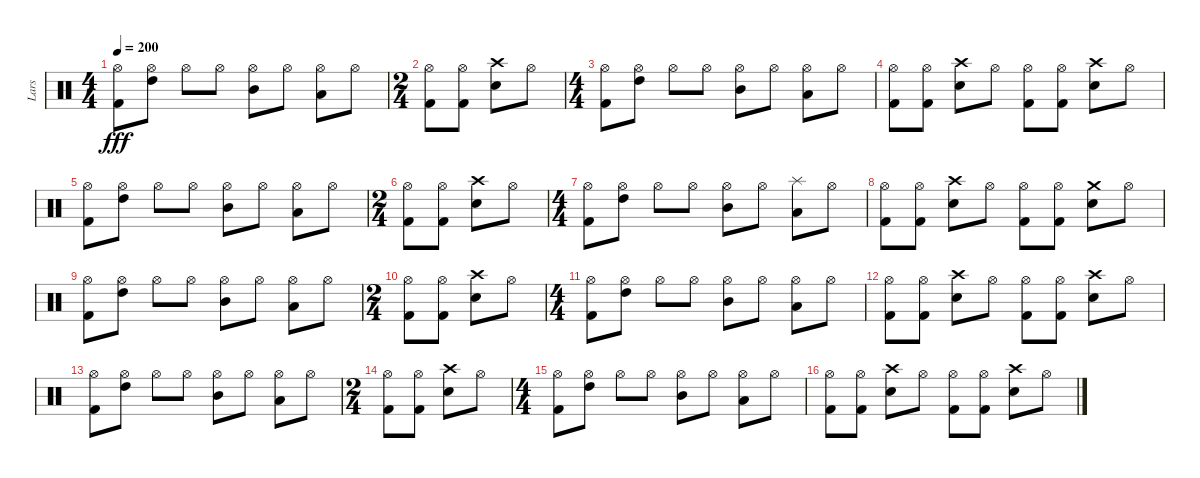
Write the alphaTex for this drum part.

\track ("Lars" "Lars") {instrument percussion}
\staff {score}
\articulation defaults
\ts (4 4)
\tempo 200
\clef neutral
\ks c
("Hi-Hat (open)" "Kick (hit) 2").8{dy fff} ("Hi-Hat (open)" "High Tom (hit)").8 "Hi-Hat (open)".8 "Hi-Hat (open)".8 ("Hi-Hat (open)" "Mid Tom (hit)").8 "Hi-Hat (open)".8 ("Hi-Hat (open)" "Low Tom (hit)").8 "Hi-Hat (open)".8 |
\ts (2 4)
("Hi-Hat (open)" "Kick (hit) 2").8 ("Hi-Hat (open)" "Kick (hit) 2").8 ("Crash high (hit)" "Snare (hit) 2").8 "Hi-Hat (open)".8 |
\ts (4 4)
("Hi-Hat (open)" "Kick (hit) 2").8 ("Hi-Hat (open)" "High Tom (hit)").8 "Hi-Hat (open)".8 "Hi-Hat (open)".8 ("Hi-Hat (open)" "Mid Tom (hit)").8 "Hi-Hat (open)".8 ("Hi-Hat (open)" "Low Tom (hit)").8 "Hi-Hat (open)".8 |
("Hi-Hat (open)" "Kick (hit) 2").8 ("Hi-Hat (open)" "Kick (hit) 2").8 ("Crash high (hit)" "Snare (hit) 2").8 "Hi-Hat (open)".8 ("Hi-Hat (open)" "Kick (hit) 2").8 ("Hi-Hat (open)" "Kick (hit) 2").8 ("Crash high (hit)" "Snare (hit) 2").8 "Hi-Hat (open)".8 |
("Hi-Hat (open)" "Kick (hit) 2").8 ("Hi-Hat (open)" "High Tom (hit)").8 "Hi-Hat (open)".8 "Hi-Hat (open)".8 ("Hi-Hat (open)" "Mid Tom (hit)").8 "Hi-Hat (open)".8 ("Hi-Hat (open)" "Low Tom (hit)").8 "Hi-Hat (open)".8 |
\ts (2 4)
("Hi-Hat (open)" "Kick (hit) 2").8 ("Hi-Hat (open)" "Kick (hit) 2").8 ("Crash high (hit)" "Snare (hit) 2").8 "Hi-Hat (open)".8 |
\ts (4 4)
("Hi-Hat (open)" "Kick (hit) 2").8 ("Hi-Hat (open)" "High Tom (hit)").8 "Hi-Hat (open)".8 "Hi-Hat (open)".8 ("Hi-Hat (open)" "Mid Tom (hit)").8 "Hi-Hat (open)".8 ("Splash (hit)" "Low Tom (hit)").8 "Hi-Hat (open)".8 |
("Hi-Hat (open)" "Kick (hit) 2").8 ("Hi-Hat (open)" "Kick (hit) 2").8 ("Crash high (hit)" "Snare (hit) 2").8 "Hi-Hat (open)".8 ("Hi-Hat (open)" "Kick (hit) 2").8 ("Hi-Hat (open)" "Kick (hit) 2").8 ("Crash medium (hit)" "Snare (hit) 2").8 "Hi-Hat (open)".8 |
("Hi-Hat (open)" "Kick (hit) 2").8 ("Hi-Hat (open)" "High Tom (hit)").8 "Hi-Hat (open)".8 "Hi-Hat (open)".8 ("Hi-Hat (open)" "Mid Tom (hit)").8 "Hi-Hat (open)".8 ("Hi-Hat (open)" "Low Tom (hit)").8 "Hi-Hat (open)".8 |
\ts (2 4)
("Hi-Hat (open)" "Kick (hit) 2").8 ("Hi-Hat (open)" "Kick (hit) 2").8 ("Crash high (hit)" "Snare (hit) 2").8 "Hi-Hat (open)".8 |
\ts (4 4)
("Hi-Hat (open)" "Kick (hit) 2").8 ("Hi-Hat (open)" "High Tom (hit)").8 "Hi-Hat (open)".8 "Hi-Hat (open)".8 ("Hi-Hat (open)" "Mid Tom (hit)").8 "Hi-Hat (open)".8 ("Hi-Hat (open)" "Low Tom (hit)").8 "Hi-Hat (open)".8 |
("Hi-Hat (open)" "Kick (hit) 2").8 ("Hi-Hat (open)" "Kick (hit) 2").8 ("Crash high (hit)" "Snare (hit) 2").8 "Hi-Hat (open)".8 ("Hi-Hat (open)" "Kick (hit) 2").8 ("Hi-Hat (open)" "Kick (hit) 2").8 ("Crash high (hit)" "Snare (hit) 2").8 "Hi-Hat (open)".8 |
("Hi-Hat (open)" "Kick (hit) 2").8 ("Hi-Hat (open)" "High Tom (hit)").8 "Hi-Hat (open)".8 "Hi-Hat (open)".8 ("Hi-Hat (open)" "Mid Tom (hit)").8 "Hi-Hat (open)".8 ("Hi-Hat (open)" "Low Tom (hit)").8 "Hi-Hat (open)".8 |
\ts (2 4)
("Hi-Hat (open)" "Kick (hit) 2").8 ("Hi-Hat (open)" "Kick (hit) 2").8 ("Crash high (hit)" "Snare (hit) 2").8 "Hi-Hat (open)".8 |
\ts (4 4)
("Hi-Hat (open)" "Kick (hit) 2").8 ("Hi-Hat (open)" "High Tom (hit)").8 "Hi-Hat (open)".8 "Hi-Hat (open)".8 ("Hi-Hat (open)" "Mid Tom (hit)").8 "Hi-Hat (open)".8 ("Hi-Hat (open)" "Low Tom (hit)").8 "Hi-Hat (open)".8 |
("Hi-Hat (open)" "Kick (hit) 2").8 ("Hi-Hat (open)" "Kick (hit) 2").8 ("Crash high (hit)" "Snare (hit) 2").8 "Hi-Hat (open)".8 ("Hi-Hat (open)" "Kick (hit) 2").8 ("Hi-Hat (open)" "Kick (hit) 2").8 ("Crash high (hit)" "Snare (hit) 2").8 "Hi-Hat (open)".8
